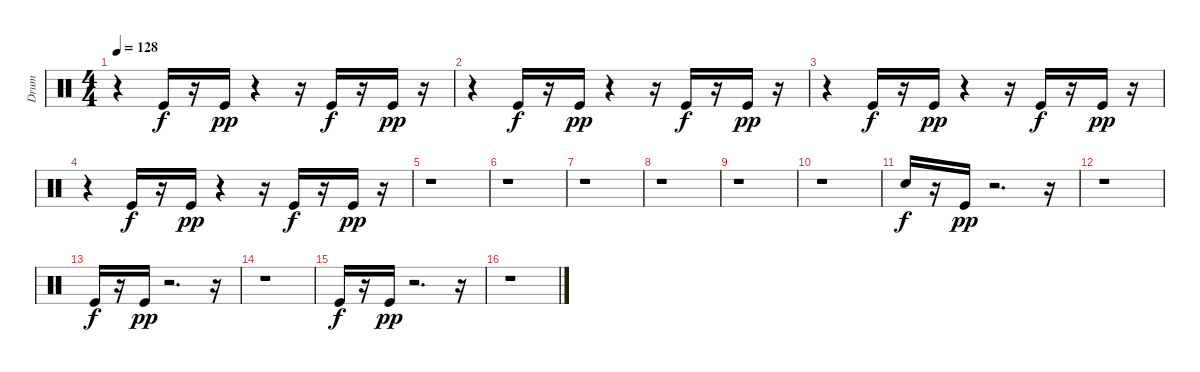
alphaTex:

\track ("Drum" "Drum") {instrument percussion}
\staff {score}
\articulation defaults
\ts (4 4)
\tempo 128
\clef neutral
\ks c
r.4{dy pp} "Kick (hit)".16{dy f} r.16 "Kick (hit)".16{dy pp} r.4 r.16 "Kick (hit)".16{dy f} r.16 "Kick (hit)".16{dy pp} r.16 |
r.4 "Kick (hit)".16{dy f} r.16 "Kick (hit)".16{dy pp} r.4 r.16 "Kick (hit)".16{dy f} r.16 "Kick (hit)".16{dy pp} r.16 |
r.4 "Kick (hit)".16{dy f} r.16 "Kick (hit)".16{dy pp} r.4 r.16 "Kick (hit)".16{dy f} r.16 "Kick (hit)".16{dy pp} r.16 |
r.4 "Kick (hit)".16{dy f} r.16 "Kick (hit)".16{dy pp} r.4 r.16 "Kick (hit)".16{dy f} r.16 "Kick (hit)".16{dy pp} r.16 |
r.1 |
r.1 |
r.1 |
r.1 |
r.1 |
r.1 |
"Metronome (bell)".16{dy f} r.16 "Kick (hit)".16{dy pp} r.2{d} r.16 |
r.1 |
"Kick (hit)".16{dy f} r.16 "Kick (hit)".16{dy pp} r.2{d} r.16 |
r.1 |
"Kick (hit)".16{dy f} r.16 "Kick (hit)".16{dy pp} r.2{d} r.16 |
r.1
